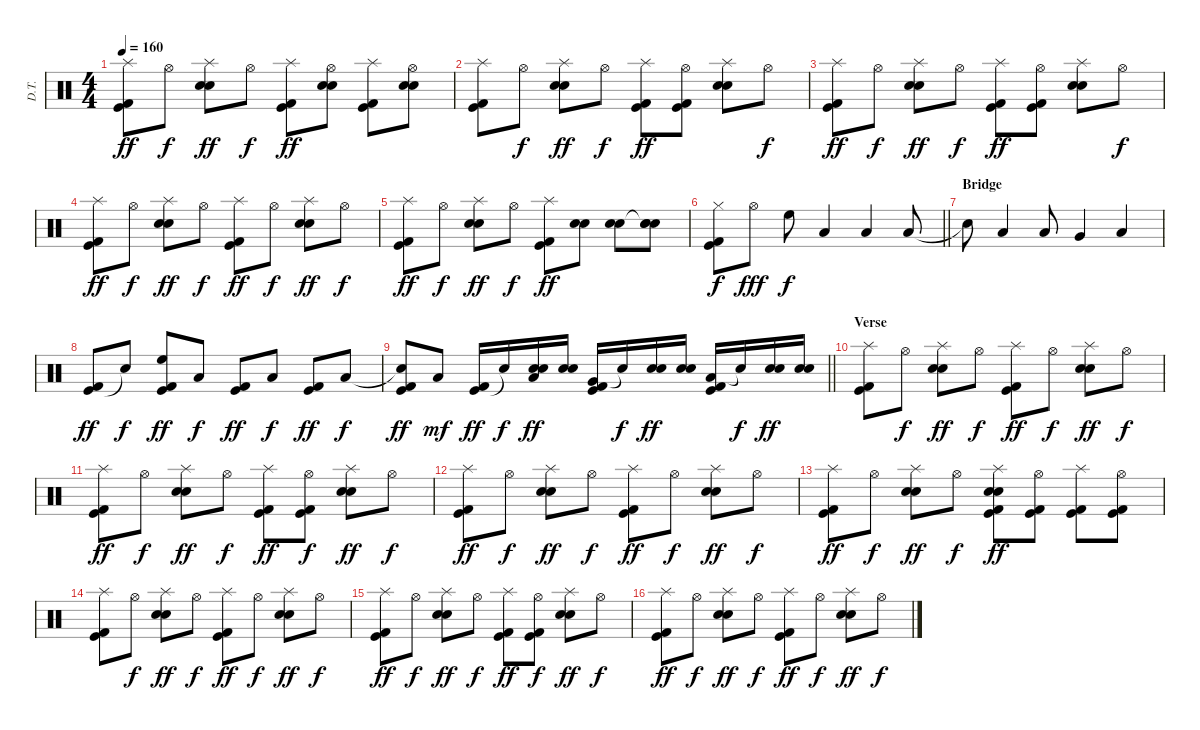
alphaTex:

\track ("D.T." "D.T.") {instrument percussion}
\staff {score}
\articulation defaults
\ts (4 4)
\tempo 160
\clef neutral
\ks c
("Splash (hit)" "Kick (hit)" "Kick (hit) 2").8{dy ff} "Hi-Hat (open)".8{dy f} ("Splash (hit)" "Snare (hit) 2" "Electric Snare (hit)").8{dy ff} "Hi-Hat (open)".8{dy f} ("Splash (hit)" "Kick (hit)" "Kick (hit) 2").8{dy ff} ("Hi-Hat (open)" "Snare (hit) 2" "Electric Snare (hit)").8 ("Splash (hit)" "Kick (hit)" "Kick (hit) 2").8 ("Hi-Hat (open)" "Snare (hit) 2" "Electric Snare (hit)").8 |
("Splash (hit)" "Kick (hit)" "Kick (hit) 2").8 "Hi-Hat (open)".8{dy f} ("Splash (hit)" "Snare (hit) 2" "Electric Snare (hit)").8{dy ff} "Hi-Hat (open)".8{dy f} ("Splash (hit)" "Kick (hit)" "Kick (hit) 2").8{dy ff} ("Hi-Hat (open)" "Kick (hit)" "Kick (hit) 2").8 ("Splash (hit)" "Snare (hit) 2" "Electric Snare (hit)").8 "Hi-Hat (open)".8{dy f} |
("Splash (hit)" "Kick (hit)" "Kick (hit) 2").8{dy ff} "Hi-Hat (open)".8{dy f} ("Splash (hit)" "Snare (hit) 2" "Electric Snare (hit)").8{dy ff} "Hi-Hat (open)".8{dy f} ("Splash (hit)" "Kick (hit)" "Kick (hit) 2").8{dy ff} ("Hi-Hat (open)" "Kick (hit)" "Kick (hit) 2").8 ("Splash (hit)" "Snare (hit) 2" "Electric Snare (hit)").8 "Hi-Hat (open)".8{dy f} |
("Splash (hit)" "Kick (hit)" "Kick (hit) 2").8{dy ff} "Hi-Hat (open)".8{dy f} ("Splash (hit)" "Snare (hit) 2" "Electric Snare (hit)").8{dy ff} "Hi-Hat (open)".8{dy f} ("Splash (hit)" "Kick (hit)" "Kick (hit) 2").8{dy ff} "Hi-Hat (open)".8{dy f} ("Splash (hit)" "Snare (hit) 2" "Electric Snare (hit)").8{dy ff} "Hi-Hat (open)".8{dy f} |
("Splash (hit)" "Kick (hit)" "Kick (hit) 2").8{dy ff} "Hi-Hat (open)".8{dy f} ("Splash (hit)" "Snare (hit) 2" "Electric Snare (hit)").8{dy ff} "Hi-Hat (open)".8{dy f} ("Splash (hit)" "Kick (hit)" "Kick (hit) 2").8{dy ff} ("Snare (hit) 2" "Electric Snare (hit)").8 ("Snare (hit) 2" "Electric Snare (hit)").8 ("Snare (hit)"{t} "Snare (hit) 2" "Electric Snare (hit)").8 |
\barLineRight lightlight
("Hi-Hat (closed)" "Kick (hit)" "Kick (hit) 2").8{dy f} "Hi-Hat (open)".8{dy fff} "High Floor Tom (hit)".8{dy f} "Low Tom (hit)".4 "Low Tom (hit)".4 "Low Tom (hit)".8 |
\section ("" "Bridge")
"Snare (hit)"{t}.8 "Low Tom (hit)".4 "Low Tom (hit)".8 "Very Low Tom (hit)".4 "Low Floor Tom (hit)".4 |
("Kick (hit)" "Kick (hit) 2").8{dy ff} "Snare (hit)"{t}.8{dy f} ("High Floor Tom (hit)" "Kick (hit)" "Kick (hit) 2").8{dy ff} "Low Tom (hit)".8{dy f} ("Kick (hit)" "Kick (hit) 2").8{dy ff} "Low Tom (hit)".8{dy f} ("Kick (hit)" "Kick (hit) 2").8{dy ff} "Low Tom (hit)".8{dy f} |
\barLineRight lightlight
("Snare (hit)"{t} "Kick (hit)" "Kick (hit) 2").8{dy ff} "Low Tom (hit)".8{dy mf} ("Kick (hit)" "Kick (hit) 2").16{dy ff} "Snare (hit)"{t}.16{dy f} ("Low Tom (hit)" "Snare (hit) 2" "Electric Snare (hit)").16{dy ff} ("Snare (hit) 2" "Electric Snare (hit)").16 ("Very Low Tom (hit)" "Kick (hit)" "Kick (hit) 2").16 "Snare (hit)"{t}.16{dy f} ("Snare (hit) 2" "Electric Snare (hit)").16{dy ff} ("Snare (hit) 2" "Electric Snare (hit)").16 ("Low Floor Tom (hit)" "Kick (hit)" "Kick (hit) 2").16 "Snare (hit)"{t}.16{dy f} ("Snare (hit) 2" "Electric Snare (hit)").16{dy ff} ("Snare (hit) 2" "Electric Snare (hit)").16 |
\section ("" "Verse")
("Splash (hit)" "Kick (hit)" "Kick (hit) 2").8 "Hi-Hat (open)".8{dy f} ("Splash (hit)" "Snare (hit) 2" "Electric Snare (hit)").8{dy ff} "Hi-Hat (open)".8{dy f} ("Splash (hit)" "Kick (hit)" "Kick (hit) 2").8{dy ff} "Hi-Hat (open)".8{dy f} ("Splash (hit)" "Snare (hit) 2" "Electric Snare (hit)").8{dy ff} "Hi-Hat (open)".8{dy f} |
("Splash (hit)" "Kick (hit)" "Kick (hit) 2").8{dy ff} "Hi-Hat (open)".8{dy f} ("Splash (hit)" "Snare (hit) 2" "Electric Snare (hit)").8{dy ff} "Hi-Hat (open)".8{dy f} ("Splash (hit)" "Kick (hit)" "Kick (hit) 2").8{dy ff} ("Hi-Hat (open)" "Kick (hit)" "Kick (hit) 2").8{dy f} ("Splash (hit)" "Snare (hit) 2" "Electric Snare (hit)").8{dy ff} "Hi-Hat (open)".8{dy f} |
("Splash (hit)" "Kick (hit)" "Kick (hit) 2").8{dy ff} "Hi-Hat (open)".8{dy f} ("Splash (hit)" "Snare (hit) 2" "Electric Snare (hit)").8{dy ff} "Hi-Hat (open)".8{dy f} ("Splash (hit)" "Kick (hit)" "Kick (hit) 2").8{dy ff} "Hi-Hat (open)".8{dy f} ("Splash (hit)" "Snare (hit) 2" "Electric Snare (hit)").8{dy ff} "Hi-Hat (open)".8{dy f} |
("Splash (hit)" "Kick (hit)" "Kick (hit) 2").8{dy ff} "Hi-Hat (open)".8{dy f} ("Splash (hit)" "Snare (hit) 2" "Electric Snare (hit)").8{dy ff} "Hi-Hat (open)".8{dy f} ("Splash (hit)" "Snare (hit) 2" "Electric Snare (hit)" "Kick (hit)" "Kick (hit) 2").8{dy ff} ("Hi-Hat (open)" "Kick (hit)" "Kick (hit) 2").8 ("Splash (hit)" "Kick (hit)" "Kick (hit) 2").8 ("Hi-Hat (open)" "Kick (hit)" "Kick (hit) 2").8 |
("Splash (hit)" "Kick (hit)" "Kick (hit) 2").8 "Hi-Hat (open)".8{dy f} ("Splash (hit)" "Snare (hit) 2" "Electric Snare (hit)").8{dy ff} "Hi-Hat (open)".8{dy f} ("Splash (hit)" "Kick (hit)" "Kick (hit) 2").8{dy ff} "Hi-Hat (open)".8{dy f} ("Splash (hit)" "Snare (hit) 2" "Electric Snare (hit)").8{dy ff} "Hi-Hat (open)".8{dy f} |
("Splash (hit)" "Kick (hit)" "Kick (hit) 2").8{dy ff} "Hi-Hat (open)".8{dy f} ("Splash (hit)" "Snare (hit) 2" "Electric Snare (hit)").8{dy ff} "Hi-Hat (open)".8{dy f} ("Splash (hit)" "Kick (hit)" "Kick (hit) 2").8{dy ff} ("Hi-Hat (open)" "Kick (hit)" "Kick (hit) 2").8{dy f} ("Splash (hit)" "Snare (hit) 2" "Electric Snare (hit)").8{dy ff} "Hi-Hat (open)".8{dy f} |
("Splash (hit)" "Kick (hit)" "Kick (hit) 2").8{dy ff} "Hi-Hat (open)".8{dy f} ("Splash (hit)" "Snare (hit) 2" "Electric Snare (hit)").8{dy ff} "Hi-Hat (open)".8{dy f} ("Splash (hit)" "Kick (hit)" "Kick (hit) 2").8{dy ff} "Hi-Hat (open)".8{dy f} ("Splash (hit)" "Snare (hit) 2" "Electric Snare (hit)").8{dy ff} "Hi-Hat (open)".8{dy f}
